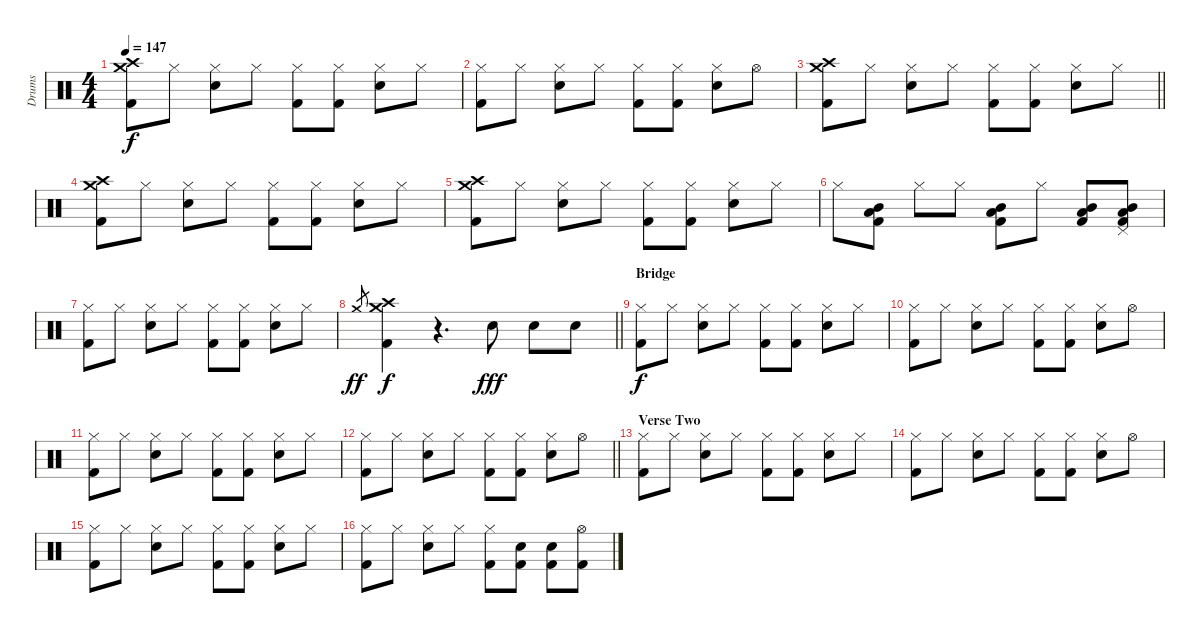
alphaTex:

\track ("Drums" "Drums") {instrument percussion}
\staff {score}
\articulation defaults
\ts (4 4)
\tempo 147
\clef neutral
\ks c
("Crash medium (hit)" "Crash high (hit)" "Kick (hit) 2").8{dy f} "Hi-Hat (closed)".8 ("Hi-Hat (closed)" "Electric Snare (hit)").8 "Hi-Hat (closed)".8 ("Hi-Hat (closed)" "Kick (hit) 2").8 ("Hi-Hat (closed)" "Kick (hit) 2").8 ("Hi-Hat (closed)" "Electric Snare (hit)").8 "Hi-Hat (closed)".8 |
("Hi-Hat (closed)" "Kick (hit) 2").8 "Hi-Hat (closed)".8 ("Hi-Hat (closed)" "Electric Snare (hit)").8 "Hi-Hat (closed)".8 ("Hi-Hat (closed)" "Kick (hit) 2").8 ("Hi-Hat (closed)" "Kick (hit) 2").8 ("Hi-Hat (closed)" "Electric Snare (hit)").8 "Hi-Hat (open)".8 |
\barLineRight lightlight
("Crash medium (hit)" "Crash high (hit)" "Kick (hit) 2").8 "Hi-Hat (closed)".8 ("Hi-Hat (closed)" "Electric Snare (hit)").8 "Hi-Hat (closed)".8 ("Hi-Hat (closed)" "Kick (hit) 2").8 ("Hi-Hat (closed)" "Kick (hit) 2").8 ("Hi-Hat (closed)" "Electric Snare (hit)").8 "Hi-Hat (closed)".8 |
("Crash medium (hit)" "Crash high (hit)" "Kick (hit) 2").8 "Hi-Hat (closed)".8 ("Hi-Hat (closed)" "Electric Snare (hit)").8 "Hi-Hat (closed)".8 ("Hi-Hat (closed)" "Kick (hit) 2").8 ("Hi-Hat (closed)" "Kick (hit) 2").8 ("Hi-Hat (closed)" "Electric Snare (hit)").8 "Hi-Hat (closed)".8 |
("Crash medium (hit)" "Crash high (hit)" "Kick (hit) 2").8 "Hi-Hat (closed)".8 ("Hi-Hat (closed)" "Electric Snare (hit)").8 "Hi-Hat (closed)".8 ("Hi-Hat (closed)" "Kick (hit) 2").8 ("Hi-Hat (closed)" "Kick (hit) 2").8 ("Hi-Hat (closed)" "Electric Snare (hit)").8 "Hi-Hat (closed)".8 |
"Hi-Hat (closed)".8 ("Low Tom (hit)" "Mid Tom (hit)" "Kick (hit) 2").8{volume 16} "Hi-Hat (closed)".8 "Hi-Hat (closed)".8 ("Mid Tom (hit)" "Low Tom (hit)" "Kick (hit) 2").8 "Hi-Hat (closed)".8 ("Low Tom (hit)" "Mid Tom (hit)" "Kick (hit) 2").8 ("Pedal Hi-Hat (hit)" "Low Tom (hit)" "Mid Tom (hit)" "Kick (hit) 2").8 |
("Hi-Hat (closed)" "Kick (hit) 2").8{volume 11} "Hi-Hat (closed)".8 ("Hi-Hat (closed)" "Electric Snare (hit)").8 "Hi-Hat (closed)".8 ("Hi-Hat (closed)" "Kick (hit) 2").8 ("Hi-Hat (closed)" "Kick (hit) 2").8 ("Hi-Hat (closed)" "Electric Snare (hit)").8 "Hi-Hat (closed)".8 |
\barLineRight lightlight "Crash medium (hit)"{h}.8{gr dy ff}
("Crash high (hit)" "Crash medium (hit)" "Kick (hit) 2").4{dy f} r.4{d} "Electric Snare (hit)".8{dy fff} "Electric Snare (hit)".8 "Electric Snare (hit)".8 |
\section ("" "Bridge")
("Hi-Hat (closed)" "Kick (hit) 2").8{dy f} "Hi-Hat (closed)".8 ("Hi-Hat (closed)" "Electric Snare (hit)").8 "Hi-Hat (closed)".8 ("Hi-Hat (closed)" "Kick (hit) 2").8 ("Hi-Hat (closed)" "Kick (hit) 2").8 ("Hi-Hat (closed)" "Electric Snare (hit)").8 "Hi-Hat (closed)".8 |
("Hi-Hat (closed)" "Kick (hit) 2").8 "Hi-Hat (closed)".8 ("Hi-Hat (closed)" "Electric Snare (hit)").8 "Hi-Hat (closed)".8 ("Hi-Hat (closed)" "Kick (hit) 2").8 ("Hi-Hat (closed)" "Kick (hit) 2").8 ("Hi-Hat (closed)" "Electric Snare (hit)").8 "Hi-Hat (open)".8 |
("Hi-Hat (closed)" "Kick (hit) 2").8 "Hi-Hat (closed)".8 ("Hi-Hat (closed)" "Electric Snare (hit)").8 "Hi-Hat (closed)".8 ("Hi-Hat (closed)" "Kick (hit) 2").8 ("Hi-Hat (closed)" "Kick (hit) 2").8 ("Hi-Hat (closed)" "Electric Snare (hit)").8 "Hi-Hat (closed)".8 |
\barLineRight lightlight
("Hi-Hat (closed)" "Kick (hit) 2").8 "Hi-Hat (closed)".8 ("Hi-Hat (closed)" "Electric Snare (hit)").8 "Hi-Hat (closed)".8 ("Hi-Hat (closed)" "Kick (hit) 2").8 ("Hi-Hat (closed)" "Kick (hit) 2").8 ("Hi-Hat (closed)" "Electric Snare (hit)").8 "Hi-Hat (open)".8 |
\section ("" "Verse Two")
("Hi-Hat (closed)" "Kick (hit) 2").8 "Hi-Hat (closed)".8 ("Hi-Hat (closed)" "Electric Snare (hit)").8 "Hi-Hat (closed)".8 ("Hi-Hat (closed)" "Kick (hit) 2").8 ("Hi-Hat (closed)" "Kick (hit) 2").8 ("Hi-Hat (closed)" "Electric Snare (hit)").8 "Hi-Hat (closed)".8 |
("Hi-Hat (closed)" "Kick (hit) 2").8 "Hi-Hat (closed)".8 ("Hi-Hat (closed)" "Electric Snare (hit)").8 "Hi-Hat (closed)".8 ("Hi-Hat (closed)" "Kick (hit) 2").8 ("Hi-Hat (closed)" "Kick (hit) 2").8 ("Hi-Hat (closed)" "Electric Snare (hit)").8 "Hi-Hat (open)".8 |
("Hi-Hat (closed)" "Kick (hit) 2").8 "Hi-Hat (closed)".8 ("Hi-Hat (closed)" "Electric Snare (hit)").8 "Hi-Hat (closed)".8 ("Hi-Hat (closed)" "Kick (hit) 2").8 ("Hi-Hat (closed)" "Kick (hit) 2").8 ("Hi-Hat (closed)" "Electric Snare (hit)").8 "Hi-Hat (closed)".8 |
("Hi-Hat (closed)" "Kick (hit) 2").8 "Hi-Hat (closed)".8 ("Hi-Hat (closed)" "Electric Snare (hit)").8 "Hi-Hat (closed)".8 ("Hi-Hat (closed)" "Kick (hit) 2").8 ("Electric Snare (hit)" "Kick (hit) 2").8 ("Electric Snare (hit)" "Kick (hit) 2").8 ("Hi-Hat (open)" "Kick (hit) 2").8
